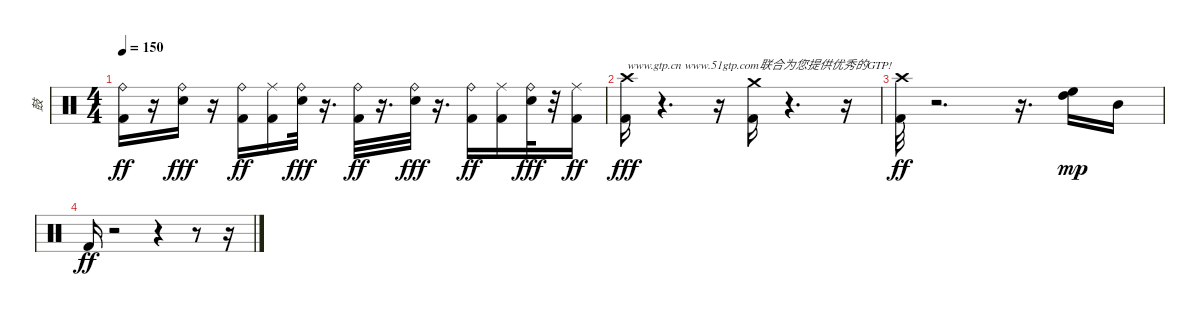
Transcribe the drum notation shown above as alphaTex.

\track ("鼓" "鼓") {instrument percussion}
\staff {score}
\articulation defaults
\ts (4 4)
\tempo 150
\clef neutral
\ks c
("Ride (bell)" "Kick (hit) 2").16{dy ff} r.16 ("Electric Snare (hit)" "Ride (bell)").16{dy fff} r.16 ("Ride (bell)" "Kick (hit) 2").16{dy ff} ("Ride (middle)" "Kick (hit) 2").16 ("Electric Snare (hit)" "Ride (bell)").32{dy fff} r.16{d} ("Ride (bell)" "Kick (hit) 2").32{dy ff} r.16{d} ("Electric Snare (hit)" "Ride (bell)").32{dy fff} r.16{d} ("Ride (bell)" "Kick (hit) 2").16{dy ff} ("Kick (hit) 2" "Ride (middle)").16 ("Ride (bell)" "Electric Snare (hit)").32{dy fff} r.32 ("Kick (hit) 2" "Ride (middle)").16{dy ff} |
("Crash high (hit)" "Kick (hit) 2").16{txt "www.gtp.cn www.51gtp.com联合为您提供优秀的GTP!" dy fff} r.4{d} r.16 ("Kick (hit) 2" "Crash medium (hit)").16 r.4{d} r.16 |
("Crash high (hit)" "Kick (hit) 2").32{dy ff} r.2{d} r.16{d} ("High Floor Tom (hit)" "High Tom (hit)").16{dy mp} "Mid Tom (hit)".16 |
"Kick (hit) 2".16{dy ff} r.2 r.4 r.8 r.16
